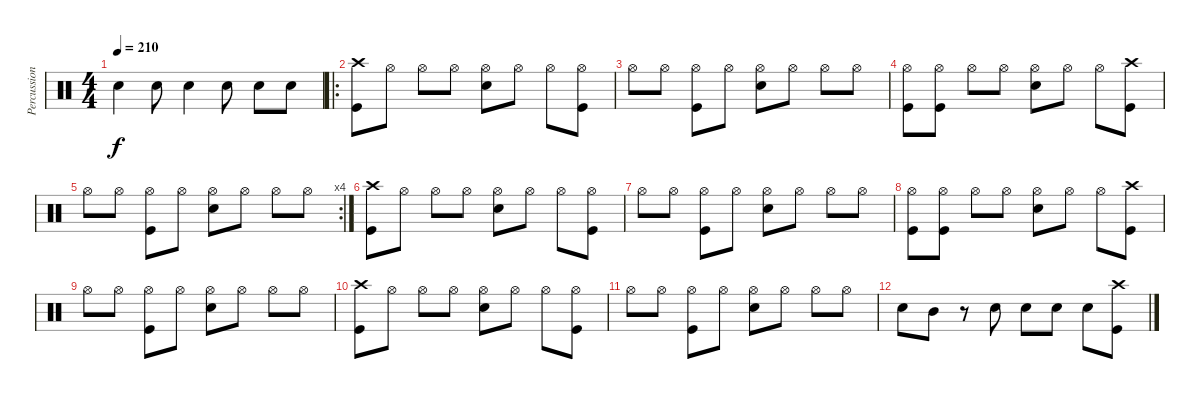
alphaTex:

\track ("Percussion" "Percussion") {instrument percussion}
\staff {score}
\articulation defaults
\ts (4 4)
\tempo 210
\clef neutral
\ks c "Electric Snare (hit)".4{dy f} "Electric Snare (hit)".8 "Electric Snare (hit)".4 "Electric Snare (hit)".8 "Electric Snare (hit)".8 "Electric Snare (hit)".8
|
\ro
("Crash high (hit)" "Kick (hit)").8 "Hi-Hat (open)".8 "Hi-Hat (open)".8 "Hi-Hat (open)".8 ("Hi-Hat (open)" "Electric Snare (hit)").8 "Hi-Hat (open)".8 "Hi-Hat (open)".8 ("Hi-Hat (open)" "Kick (hit)").8 |
"Hi-Hat (open)".8 "Hi-Hat (open)".8 ("Hi-Hat (open)" "Kick (hit)").8 "Hi-Hat (open)".8 ("Hi-Hat (open)" "Electric Snare (hit)").8 "Hi-Hat (open)".8 "Hi-Hat (open)".8 "Hi-Hat (open)".8 |
("Hi-Hat (open)" "Kick (hit)").8 ("Hi-Hat (open)" "Kick (hit)").8 "Hi-Hat (open)".8 "Hi-Hat (open)".8 ("Hi-Hat (open)" "Electric Snare (hit)").8 "Hi-Hat (open)".8 "Hi-Hat (open)".8 ("Crash high (hit)" "Kick (hit)").8 |
\rc 4 "Hi-Hat (open)".8 "Hi-Hat (open)".8
("Hi-Hat (open)" "Kick (hit)").8 "Hi-Hat (open)".8 ("Hi-Hat (open)" "Electric Snare (hit)").8 "Hi-Hat (open)".8 "Hi-Hat (open)".8 "Hi-Hat (open)".8 |
("Crash high (hit)" "Kick (hit)").8 "Hi-Hat (open)".8 "Hi-Hat (open)".8 "Hi-Hat (open)".8 ("Hi-Hat (open)" "Electric Snare (hit)").8 "Hi-Hat (open)".8 "Hi-Hat (open)".8 ("Hi-Hat (open)" "Kick (hit)").8 |
"Hi-Hat (open)".8 "Hi-Hat (open)".8 ("Hi-Hat (open)" "Kick (hit)").8 "Hi-Hat (open)".8 ("Hi-Hat (open)" "Electric Snare (hit)").8 "Hi-Hat (open)".8 "Hi-Hat (open)".8 "Hi-Hat (open)".8 |
("Hi-Hat (open)" "Kick (hit)").8 ("Hi-Hat (open)" "Kick (hit)").8 "Hi-Hat (open)".8 "Hi-Hat (open)".8 ("Hi-Hat (open)" "Electric Snare (hit)").8 "Hi-Hat (open)".8 "Hi-Hat (open)".8 ("Crash high (hit)" "Kick (hit)").8 |
"Hi-Hat (open)".8 "Hi-Hat (open)".8 ("Hi-Hat (open)" "Kick (hit)").8 "Hi-Hat (open)".8 ("Hi-Hat (open)" "Electric Snare (hit)").8 "Hi-Hat (open)".8 "Hi-Hat (open)".8 "Hi-Hat (open)".8 |
("Crash high (hit)" "Kick (hit)").8 "Hi-Hat (open)".8 "Hi-Hat (open)".8 "Hi-Hat (open)".8 ("Hi-Hat (open)" "Electric Snare (hit)").8 "Hi-Hat (open)".8 "Hi-Hat (open)".8 ("Hi-Hat (open)" "Kick (hit)").8 |
"Hi-Hat (open)".8 "Hi-Hat (open)".8 ("Hi-Hat (open)" "Kick (hit)").8 "Hi-Hat (open)".8 ("Hi-Hat (open)" "Electric Snare (hit)").8 "Hi-Hat (open)".8 "Hi-Hat (open)".8 "Hi-Hat (open)".8 |
"Electric Snare (hit)".8 "Mid Tom (hit)".8 r.8 "Electric Snare (hit)".8 "Electric Snare (hit)".8 "Electric Snare (hit)".8 "Electric Snare (hit)".8 ("Crash high (hit)" "Kick (hit)").8
